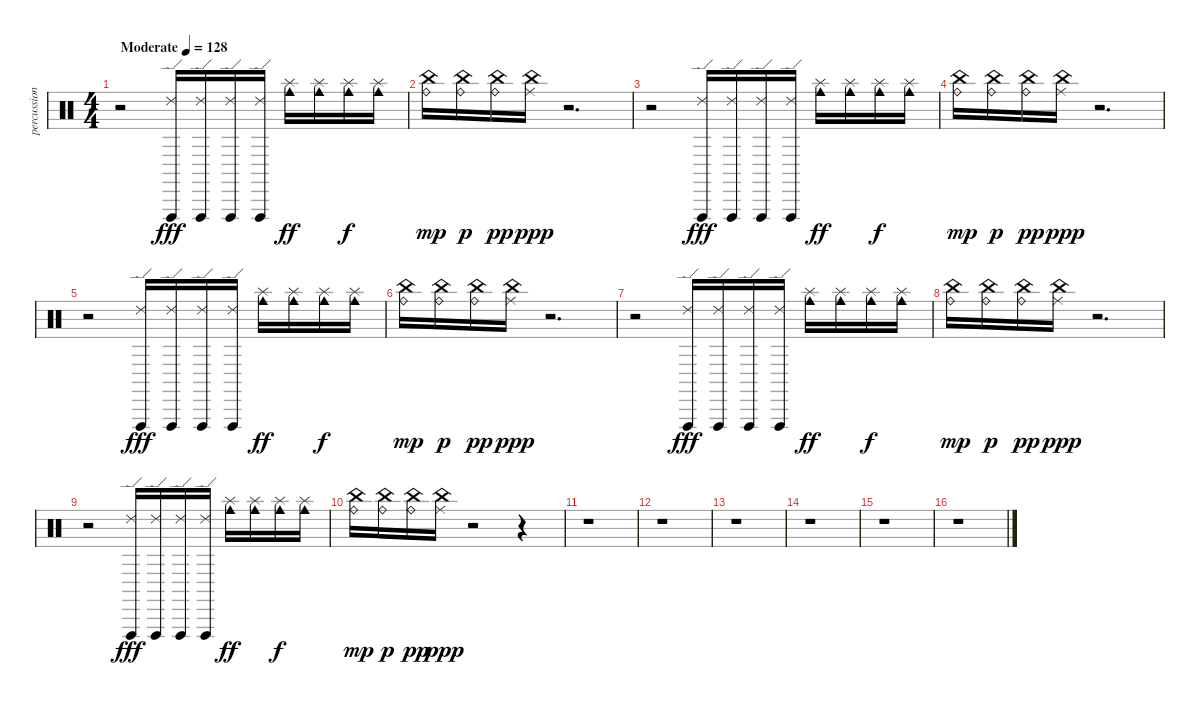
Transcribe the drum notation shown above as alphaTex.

\track ("percussion" "percussion") {instrument percussion}
\staff {score}
\articulation defaults
\ts (4 4)
\tempo (128 "Moderate")
\clef neutral
\ks c
r.2{dy fff} ("Ride (edge) 2" "Vibraslap (hit)").16 ("Vibraslap (hit)" "Ride (edge) 2").16 ("Vibraslap (hit)" "Ride (edge) 2").16 ("Vibraslap (hit)" "Ride (edge) 2").16 ("Splash (hit)" "Cowbell medium (hit)").16{dy ff} ("Splash (hit)" "Cowbell medium (hit)").16 ("Splash (hit)" "Cowbell medium (hit)").16{dy f} ("Splash (hit)" "Cowbell medium (hit)").16 |
("China (hit)" "Ride (bell)").16{dy mp} ("China (hit)" "Ride (bell)").16{dy p} ("China (hit)" "Ride (bell)").16{dy pp} ("Ride (middle)" "China (hit)").16{dy ppp} r.2{d} |
r.2 ("Vibraslap (hit)" "Ride (edge) 2").16{dy fff} ("Vibraslap (hit)" "Ride (edge) 2").16 ("Vibraslap (hit)" "Ride (edge) 2").16 ("Vibraslap (hit)" "Ride (edge) 2").16 ("Splash (hit)" "Cowbell medium (hit)").16{dy ff} ("Splash (hit)" "Cowbell medium (hit)").16 ("Splash (hit)" "Cowbell medium (hit)").16{dy f} ("Splash (hit)" "Cowbell medium (hit)").16 |
("China (hit)" "Ride (bell)").16{dy mp} ("China (hit)" "Ride (bell)").16{dy p} ("China (hit)" "Ride (bell)").16{dy pp} ("Ride (middle)" "China (hit)").16{dy ppp} r.2{d} |
r.2 ("Vibraslap (hit)" "Ride (edge) 2").16{dy fff} ("Vibraslap (hit)" "Ride (edge) 2").16 ("Vibraslap (hit)" "Ride (edge) 2").16 ("Vibraslap (hit)" "Ride (edge) 2").16 ("Splash (hit)" "Cowbell medium (hit)").16{dy ff} ("Splash (hit)" "Cowbell medium (hit)").16 ("Splash (hit)" "Cowbell medium (hit)").16{dy f} ("Splash (hit)" "Cowbell medium (hit)").16 |
("China (hit)" "Ride (bell)").16{dy mp} ("China (hit)" "Ride (bell)").16{dy p} ("China (hit)" "Ride (bell)").16{dy pp} ("Ride (middle)" "China (hit)").16{dy ppp} r.2{d} |
r.2 ("Vibraslap (hit)" "Ride (edge) 2").16{dy fff} ("Vibraslap (hit)" "Ride (edge) 2").16 ("Vibraslap (hit)" "Ride (edge) 2").16 ("Vibraslap (hit)" "Ride (edge) 2").16 ("Splash (hit)" "Cowbell medium (hit)").16{dy ff} ("Splash (hit)" "Cowbell medium (hit)").16 ("Splash (hit)" "Cowbell medium (hit)").16{dy f} ("Splash (hit)" "Cowbell medium (hit)").16 |
("China (hit)" "Ride (bell)").16{dy mp} ("China (hit)" "Ride (bell)").16{dy p} ("China (hit)" "Ride (bell)").16{dy pp} ("Ride (middle)" "China (hit)").16{dy ppp} r.2{d} |
r.2 ("Vibraslap (hit)" "Ride (edge) 2").16{dy fff} ("Vibraslap (hit)" "Ride (edge) 2").16 ("Vibraslap (hit)" "Ride (edge) 2").16 ("Vibraslap (hit)" "Ride (edge) 2").16 ("Splash (hit)" "Cowbell medium (hit)").16{dy ff} ("Splash (hit)" "Cowbell medium (hit)").16 ("Splash (hit)" "Cowbell medium (hit)").16{dy f} ("Splash (hit)" "Cowbell medium (hit)").16 |
("China (hit)" "Ride (bell)").16{dy mp} ("China (hit)" "Ride (bell)").16{dy p} ("China (hit)" "Ride (bell)").16{dy pp} ("Ride (middle)" "China (hit)").16{dy ppp} r.2 r.4 |
r.1 |
r.1 |
r.1 |
r.1 |
r.1 |
r.1
